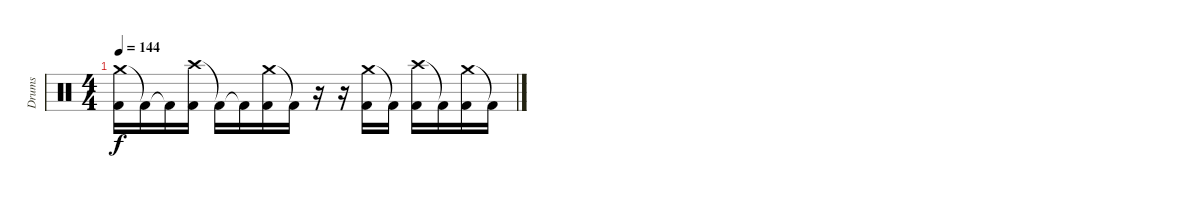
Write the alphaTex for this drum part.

\track ("Drums" "Drums") {instrument percussion}
\staff {score}
\articulation defaults
\ts (4 4)
\tempo 144
\clef neutral
\ks c
("Crash medium (hit)" "Kick (hit) 2").16{dy f} "Kick (hit) 2"{t}.16 "Kick (hit) 2"{t}.16 ("Crash high (hit)" "Kick (hit) 2").16 "Kick (hit) 2"{t}.16 "Kick (hit) 2"{t}.16 ("Crash medium (hit)" "Kick (hit) 2").16 "Kick (hit) 2"{t}.16 r.16 r.16 ("Crash medium (hit)" "Kick (hit) 2").16 "Kick (hit) 2"{t}.16 ("Crash high (hit)" "Kick (hit) 2").16 "Kick (hit) 2"{t}.16 ("Crash medium (hit)" "Kick (hit) 2").16 "Kick (hit) 2"{t}.16
